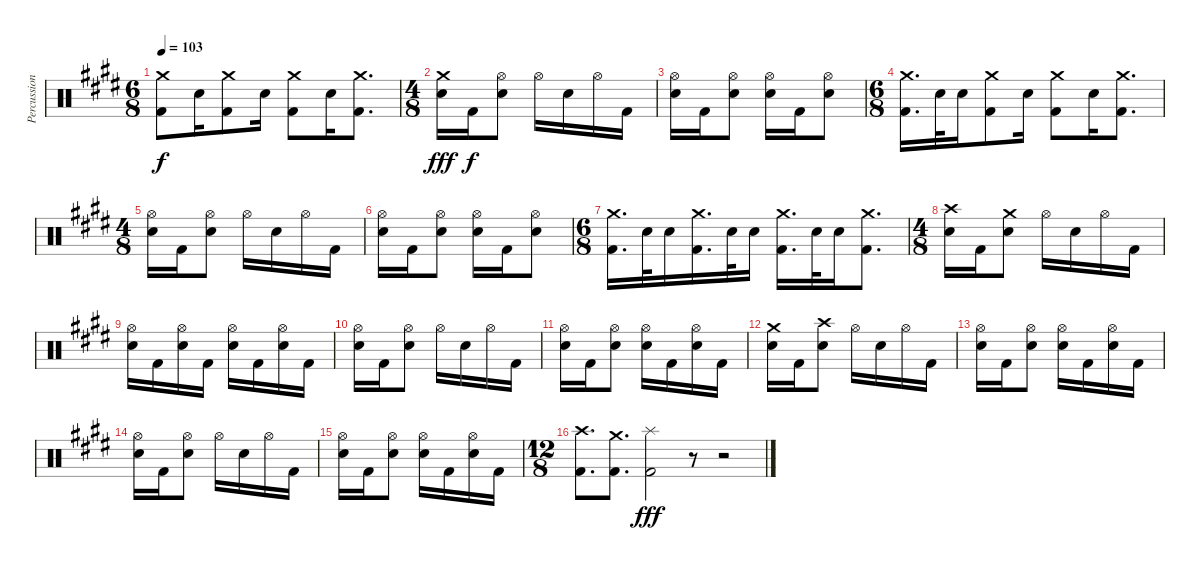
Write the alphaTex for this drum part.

\track ("Percussion" "Percussion") {instrument percussion}
\staff {score}
\articulation defaults
\ts (6 8)
\tempo 103
\clef neutral
\ks e
("Crash medium (hit)" "Kick (hit) 2").8{dy f} "Electric Snare (hit)".16 ("Crash medium (hit)" "Kick (hit) 2").8 "Electric Snare (hit)".16 ("Crash medium (hit)" "Kick (hit) 2").8 "Electric Snare (hit)".16 ("Crash medium (hit)" "Kick (hit) 2").8{d} |
\ts (4 8)
\ks c#minor
("Crash medium (hit)" "Electric Snare (hit)").16{dy fff} "Kick (hit) 2".16{dy f} ("Hi-Hat (open)" "Electric Snare (hit)").8 "Hi-Hat (open)".16 "Electric Snare (hit)".16 "Hi-Hat (open)".16 "Kick (hit) 2".16 |
("Hi-Hat (open)" "Electric Snare (hit)").16 "Kick (hit) 2".16 ("Hi-Hat (open)" "Electric Snare (hit)").8 ("Hi-Hat (open)" "Electric Snare (hit)").16 "Kick (hit) 2".16 ("Hi-Hat (open)" "Electric Snare (hit)").8 |
\ts (6 8)
("Crash medium (hit)" "Kick (hit) 2").16{d} "Electric Snare (hit)".32 "Electric Snare (hit)".16 ("Crash medium (hit)" "Kick (hit) 2").8 "Electric Snare (hit)".16 ("Crash medium (hit)" "Kick (hit) 2").8 "Electric Snare (hit)".16 ("Crash medium (hit)" "Kick (hit) 2").8{d} |
\ts (4 8)
\ks e
("Hi-Hat (open)" "Electric Snare (hit)").16 "Kick (hit) 2".16 ("Hi-Hat (open)" "Electric Snare (hit)").8 "Hi-Hat (open)".16 "Electric Snare (hit)".16 "Hi-Hat (open)".16 "Kick (hit) 2".16 |
\ks c#minor
("Hi-Hat (open)" "Electric Snare (hit)").16 "Kick (hit) 2".16 ("Hi-Hat (open)" "Electric Snare (hit)").8 ("Hi-Hat (open)" "Electric Snare (hit)").16 "Kick (hit) 2".16 ("Hi-Hat (open)" "Electric Snare (hit)").8 |
\ts (6 8)
("Crash medium (hit)" "Kick (hit) 2").16{d} "Electric Snare (hit)".32 "Electric Snare (hit)".16 ("Crash medium (hit)" "Kick (hit) 2").16{d} "Electric Snare (hit)".32 "Electric Snare (hit)".16 ("Crash medium (hit)" "Kick (hit) 2").16{d} "Electric Snare (hit)".32 "Electric Snare (hit)".16 ("Crash medium (hit)" "Kick (hit) 2").8{d} |
\ts (4 8)
\ks e
("Crash high (hit)" "Electric Snare (hit)").16 "Kick (hit) 2".16 ("Crash medium (hit)" "Electric Snare (hit)").8 "Hi-Hat (open)".16 "Electric Snare (hit)".16 "Hi-Hat (open)".16 "Kick (hit) 2".16 |
\ks c#minor
("Hi-Hat (open)" "Electric Snare (hit)").16 "Kick (hit) 2".16 ("Hi-Hat (open)" "Electric Snare (hit)").16 "Kick (hit) 2".16 ("Hi-Hat (open)" "Electric Snare (hit)").16 "Kick (hit) 2".16 ("Hi-Hat (open)" "Electric Snare (hit)").16 "Kick (hit) 2".16 |
("Hi-Hat (open)" "Electric Snare (hit)").16 "Kick (hit) 2".16 ("Hi-Hat (open)" "Electric Snare (hit)").8 "Hi-Hat (open)".16 "Electric Snare (hit)".16 "Hi-Hat (open)".16 "Kick (hit) 2".16 |
("Hi-Hat (open)" "Electric Snare (hit)").16 "Kick (hit) 2".16 ("Hi-Hat (open)" "Electric Snare (hit)").8 ("Hi-Hat (open)" "Electric Snare (hit)").16 "Kick (hit) 2".16 ("Hi-Hat (open)" "Electric Snare (hit)").16 "Kick (hit) 2".16 |
\ks e
("Crash medium (hit)" "Electric Snare (hit)").16 "Kick (hit) 2".16 ("Crash high (hit)" "Electric Snare (hit)").8 "Hi-Hat (open)".16 "Electric Snare (hit)".16 "Hi-Hat (open)".16 "Kick (hit) 2".16 |
\ks c#minor
("Hi-Hat (open)" "Electric Snare (hit)").16 "Kick (hit) 2".16 ("Hi-Hat (open)" "Electric Snare (hit)").8 ("Hi-Hat (open)" "Electric Snare (hit)").16 "Kick (hit) 2".16 ("Hi-Hat (open)" "Electric Snare (hit)").16 "Kick (hit) 2".16 |
("Hi-Hat (open)" "Electric Snare (hit)").16 "Kick (hit) 2".16 ("Hi-Hat (open)" "Electric Snare (hit)").8 "Hi-Hat (open)".16 "Electric Snare (hit)".16 "Hi-Hat (open)".16 "Kick (hit) 2".16 |
("Hi-Hat (open)" "Electric Snare (hit)").16 "Kick (hit) 2".16 ("Hi-Hat (open)" "Electric Snare (hit)").8 ("Hi-Hat (open)" "Electric Snare (hit)").16 "Kick (hit) 2".16 ("Hi-Hat (open)" "Electric Snare (hit)").16 "Kick (hit) 2".16 |
\ts (12 8)
\ks e
("Crash high (hit)" "Kick (hit) 2").8{d} ("Crash medium (hit)" "Kick (hit) 2").8{d} ("Splash (hit)" "Kick (hit) 2").2{dy fff} r.8 r.2
